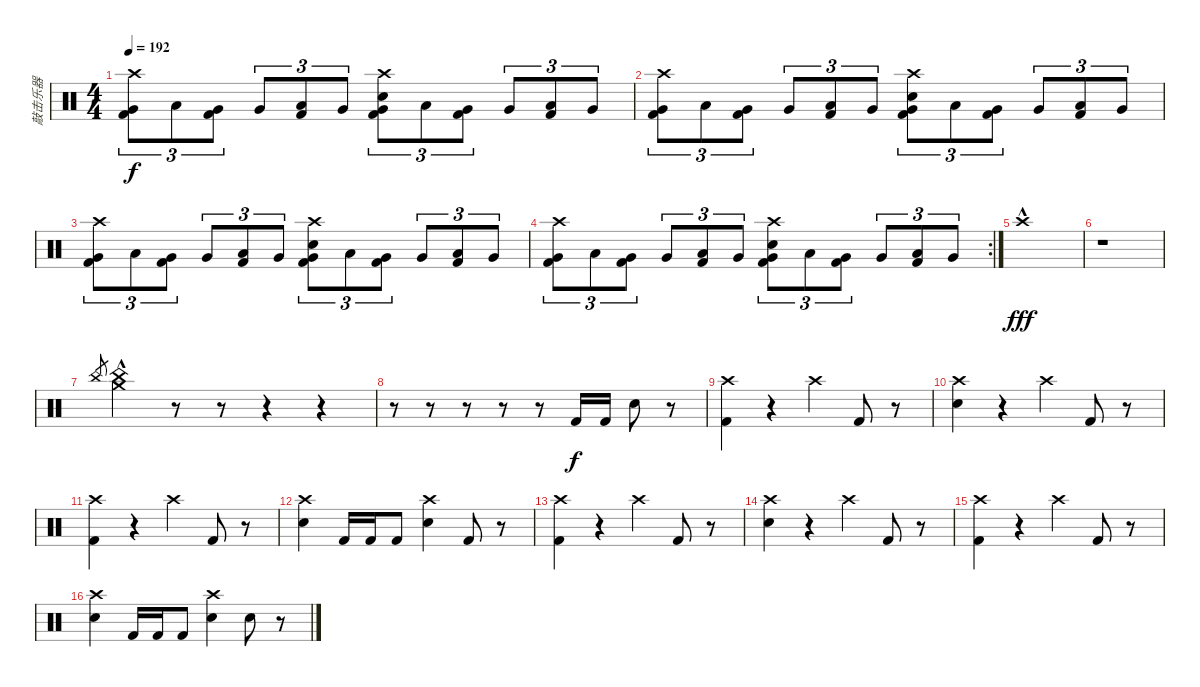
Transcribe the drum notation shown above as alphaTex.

\track ("敲击乐器" "敲击乐器") {instrument percussion}
\staff {score}
\articulation defaults
\ts (4 4)
\tempo 192
\clef neutral
\ks c
("Crash high (hit)" "Kick (hit) 2" "Very Low Tom (hit)").8{tu (3 2) dy f} "Low Tom (hit)".8{tu (3 2)} ("Kick (hit) 2" "Very Low Tom (hit)").8{tu (3 2)} "Very Low Tom (hit)".8{tu (3 2)} ("Kick (hit) 2" "Low Tom (hit)").8{tu (3 2)} "Very Low Tom (hit)".8{tu (3 2)} ("Crash high (hit)" "Electric Snare (hit)" "Kick (hit) 2" "Very Low Tom (hit)").8{tu (3 2)} "Low Tom (hit)".8{tu (3 2)} ("Kick (hit) 2" "Very Low Tom (hit)").8{tu (3 2)} "Very Low Tom (hit)".8{tu (3 2)} ("Kick (hit) 2" "Low Tom (hit)").8{tu (3 2)} "Very Low Tom (hit)".8{tu (3 2)} |
("Crash high (hit)" "Kick (hit) 2" "Very Low Tom (hit)").8{tu (3 2)} "Low Tom (hit)".8{tu (3 2)} ("Kick (hit) 2" "Very Low Tom (hit)").8{tu (3 2)} "Very Low Tom (hit)".8{tu (3 2)} ("Kick (hit) 2" "Low Tom (hit)").8{tu (3 2)} "Very Low Tom (hit)".8{tu (3 2)} ("Crash high (hit)" "Electric Snare (hit)" "Kick (hit) 2" "Very Low Tom (hit)").8{tu (3 2)} "Low Tom (hit)".8{tu (3 2)} ("Kick (hit) 2" "Very Low Tom (hit)").8{tu (3 2)} "Very Low Tom (hit)".8{tu (3 2)} ("Kick (hit) 2" "Low Tom (hit)").8{tu (3 2)} "Very Low Tom (hit)".8{tu (3 2)} |
("Crash high (hit)" "Kick (hit) 2" "Very Low Tom (hit)").8{tu (3 2)} "Low Tom (hit)".8{tu (3 2)} ("Kick (hit) 2" "Very Low Tom (hit)").8{tu (3 2)} "Very Low Tom (hit)".8{tu (3 2)} ("Kick (hit) 2" "Low Tom (hit)").8{tu (3 2)} "Very Low Tom (hit)".8{tu (3 2)} ("Crash high (hit)" "Electric Snare (hit)" "Kick (hit) 2" "Very Low Tom (hit)").8{tu (3 2)} "Low Tom (hit)".8{tu (3 2)} ("Kick (hit) 2" "Very Low Tom (hit)").8{tu (3 2)} "Very Low Tom (hit)".8{tu (3 2)} ("Kick (hit) 2" "Low Tom (hit)").8{tu (3 2)} "Very Low Tom (hit)".8{tu (3 2)} |
\rc 2
("Crash high (hit)" "Kick (hit) 2" "Very Low Tom (hit)").8{tu (3 2)} "Low Tom (hit)".8{tu (3 2)} ("Kick (hit) 2" "Very Low Tom (hit)").8{tu (3 2)} "Very Low Tom (hit)".8{tu (3 2)} ("Kick (hit) 2" "Low Tom (hit)").8{tu (3 2)} "Very Low Tom (hit)".8{tu (3 2)} ("Crash high (hit)" "Electric Snare (hit)" "Kick (hit) 2" "Very Low Tom (hit)").8{tu (3 2)} "Low Tom (hit)".8{tu (3 2)} ("Kick (hit) 2" "Very Low Tom (hit)").8{tu (3 2)} "Very Low Tom (hit)".8{tu (3 2)} ("Kick (hit) 2" "Low Tom (hit)").8{tu (3 2)} "Very Low Tom (hit)".8{tu (3 2)} |
"Crash high (hit)"{hac}.1{dy fff} |
r.1 |
"China (hit)".8{gr} ("Crash medium (hit)" "China (hit)"{hac}).4 r.8 r.8 r.4 r.4 |
r.8 r.8 r.8 r.8 r.8 "Kick (hit) 2".16{dy f} "Kick (hit) 2".16 "Electric Snare (hit)".8 r.8 |
("Crash high (hit)" "Kick (hit) 2").4 r.4 "Crash high (hit)".4 "Kick (hit) 2".8 r.8 |
("Crash high (hit)" "Electric Snare (hit)").4 r.4 "Crash high (hit)".4 "Kick (hit) 2".8 r.8 |
("Crash high (hit)" "Kick (hit) 2").4 r.4 "Crash high (hit)".4 "Kick (hit) 2".8 r.8 |
("Crash high (hit)" "Electric Snare (hit)").4 "Kick (hit) 2".16 "Kick (hit) 2".16 "Kick (hit) 2".8 ("Crash high (hit)" "Electric Snare (hit)").4 "Kick (hit) 2".8 r.8 |
("Crash high (hit)" "Kick (hit) 2").4 r.4 "Crash high (hit)".4 "Kick (hit) 2".8 r.8 |
("Crash high (hit)" "Electric Snare (hit)").4 r.4 "Crash high (hit)".4 "Kick (hit) 2".8 r.8 |
("Crash high (hit)" "Kick (hit) 2").4 r.4 "Crash high (hit)".4 "Kick (hit) 2".8 r.8 |
("Crash high (hit)" "Electric Snare (hit)").4 "Kick (hit) 2".16 "Kick (hit) 2".16 "Kick (hit) 2".8 ("Crash high (hit)" "Electric Snare (hit)").4 "Electric Snare (hit)".8 r.8
